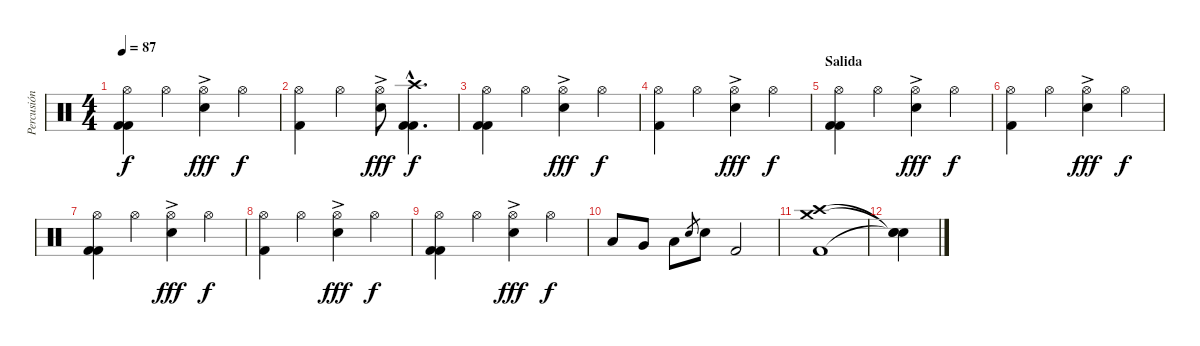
\track ("Percusión" "Percusión") {instrument percussion}
\staff {score}
\articulation defaults
\ts (4 4)
\tempo 87
\clef neutral
\ks c
("Hi-Hat (open)" "Kick (hit) 2" "Kick (hit) 2").4{dy f} "Hi-Hat (open)".4 ("Hi-Hat (open)"{ac} "Snare (hit) 2").4{dy fff} "Hi-Hat (open)".4{dy f} |
("Hi-Hat (open)" "Kick (hit) 2").4 "Hi-Hat (open)".4 ("Hi-Hat (open)" "Snare (hit) 2"{ac}).8{dy fff} ("Crash high (hit)"{hac} "Kick (hit) 2"{hac} "Kick (hit) 2"{hac}).4{d dy f} |
("Hi-Hat (open)" "Kick (hit) 2" "Kick (hit) 2").4 "Hi-Hat (open)".4 ("Hi-Hat (open)"{ac} "Snare (hit) 2").4{dy fff} "Hi-Hat (open)".4{dy f} |
("Hi-Hat (open)" "Kick (hit) 2").4 "Hi-Hat (open)".4 ("Hi-Hat (open)" "Snare (hit) 2"{ac}).4{dy fff} "Hi-Hat (open)".4{dy f} |
\section ("" "Salida")
("Hi-Hat (open)" "Kick (hit) 2" "Kick (hit) 2").4 "Hi-Hat (open)".4 ("Hi-Hat (open)"{ac} "Snare (hit) 2").4{dy fff} "Hi-Hat (open)".4{dy f} |
("Hi-Hat (open)" "Kick (hit) 2").4 "Hi-Hat (open)".4 ("Hi-Hat (open)" "Snare (hit) 2"{ac}).4{dy fff} "Hi-Hat (open)".4{dy f} |
("Hi-Hat (open)" "Kick (hit) 2" "Kick (hit) 2").4 "Hi-Hat (open)".4 ("Hi-Hat (open)"{ac} "Snare (hit) 2").4{dy fff} "Hi-Hat (open)".4{dy f} |
("Hi-Hat (open)" "Kick (hit) 2").4 "Hi-Hat (open)".4 ("Hi-Hat (open)" "Snare (hit) 2"{ac}).4{dy fff} "Hi-Hat (open)".4{dy f} |
("Hi-Hat (open)" "Kick (hit) 2" "Kick (hit) 2").4 "Hi-Hat (open)".4 ("Hi-Hat (open)"{ac} "Snare (hit) 2").4{dy fff} "Hi-Hat (open)".4{dy f} |
"Low Tom (hit)".8 "Very Low Tom (hit)".8 "Low Floor Tom (hit)".8 "Snare (hit) 2"{h}.8{gr} "Snare (hit) 2".8 "Kick (hit) 2".2 |
("Crash medium (hit)" "Crash high (hit)" "Kick (hit) 2").1 |
("Snare (hit)"{t} "Snare (hit)"{t} "Snare (hit)"{t}).4
